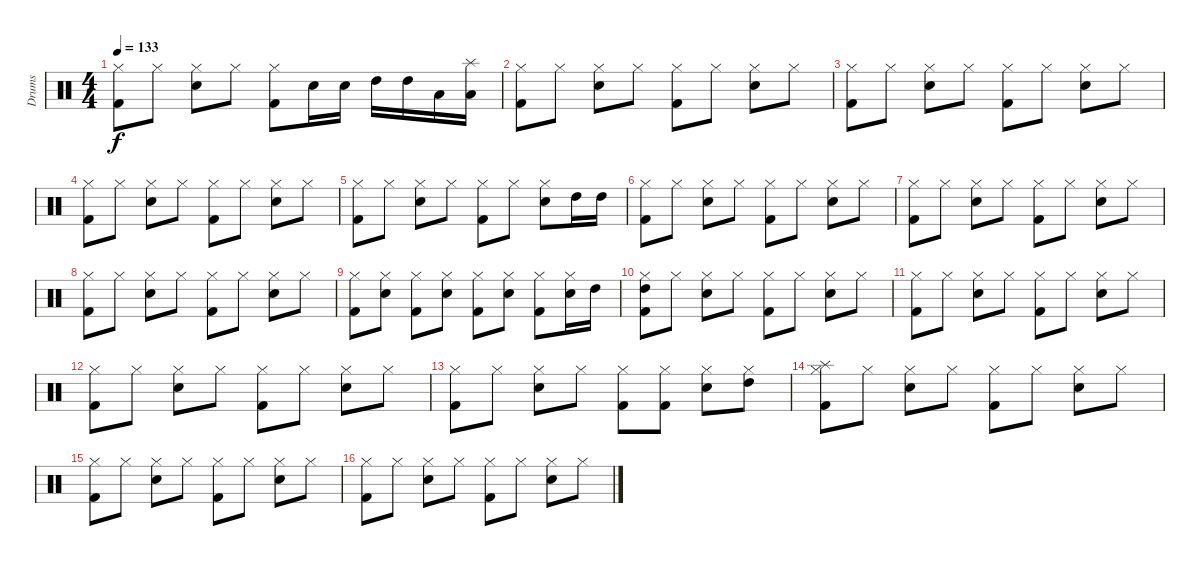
\track ("Drums" "Drums") {instrument percussion}
\staff {score}
\articulation defaults
\ts (4 4)
\tempo 133
\clef neutral
\ks c
("Kick (hit) 2" "Hi-Hat (closed)").8{dy f} "Hi-Hat (closed)".8 ("Snare (hit) 2" "Hi-Hat (closed)").8 "Hi-Hat (closed)".8 ("Kick (hit) 2" "Hi-Hat (closed)").8 "Snare (hit) 2".16 "Snare (hit) 2".16 "High Tom (hit)".16 "High Tom (hit)".16 "Low Tom (hit)".16 ("Low Floor Tom (hit)" "Splash (hit)").16 |
("Kick (hit) 2" "Hi-Hat (closed)").8 "Hi-Hat (closed)".8 ("Snare (hit) 2" "Hi-Hat (closed)").8 "Hi-Hat (closed)".8 ("Kick (hit) 2" "Hi-Hat (closed)").8 "Hi-Hat (closed)".8 ("Snare (hit) 2" "Hi-Hat (closed)").8 "Hi-Hat (closed)".8 |
("Kick (hit) 2" "Hi-Hat (closed)").8 "Hi-Hat (closed)".8 ("Snare (hit) 2" "Hi-Hat (closed)").8 "Hi-Hat (closed)".8 ("Kick (hit) 2" "Hi-Hat (closed)").8 "Hi-Hat (closed)".8 ("Snare (hit) 2" "Hi-Hat (closed)").8 "Hi-Hat (closed)".8 |
("Kick (hit) 2" "Hi-Hat (closed)").8 "Hi-Hat (closed)".8 ("Snare (hit) 2" "Hi-Hat (closed)").8 "Hi-Hat (closed)".8 ("Kick (hit) 2" "Hi-Hat (closed)").8 "Hi-Hat (closed)".8 ("Snare (hit) 2" "Hi-Hat (closed)").8 "Hi-Hat (closed)".8 |
("Kick (hit) 2" "Hi-Hat (closed)").8 "Hi-Hat (closed)".8 ("Snare (hit) 2" "Hi-Hat (closed)").8 "Hi-Hat (closed)".8 ("Kick (hit) 2" "Hi-Hat (closed)").8 "Hi-Hat (closed)".8 ("Snare (hit) 2" "Hi-Hat (closed)").8 "High Tom (hit)".16 "High Tom (hit)".16 |
("Kick (hit) 2" "Hi-Hat (closed)").8 "Hi-Hat (closed)".8 ("Snare (hit) 2" "Hi-Hat (closed)").8 "Hi-Hat (closed)".8 ("Kick (hit) 2" "Hi-Hat (closed)").8 "Hi-Hat (closed)".8 ("Snare (hit) 2" "Hi-Hat (closed)").8 "Hi-Hat (closed)".8 |
("Kick (hit) 2" "Hi-Hat (closed)").8 "Hi-Hat (closed)".8 ("Snare (hit) 2" "Hi-Hat (closed)").8 "Hi-Hat (closed)".8 ("Kick (hit) 2" "Hi-Hat (closed)").8 "Hi-Hat (closed)".8 ("Snare (hit) 2" "Hi-Hat (closed)").8 "Hi-Hat (closed)".8 |
("Kick (hit) 2" "Hi-Hat (closed)").8 "Hi-Hat (closed)".8 ("Snare (hit) 2" "Hi-Hat (closed)").8 "Hi-Hat (closed)".8 ("Kick (hit) 2" "Hi-Hat (closed)").8 "Hi-Hat (closed)".8 ("Snare (hit) 2" "Hi-Hat (closed)").8 "Hi-Hat (closed)".8 |
("Kick (hit) 2" "Hi-Hat (closed)").8 ("Snare (hit) 2" "Hi-Hat (closed)").8 ("Kick (hit) 2" "Hi-Hat (closed)").8 ("Snare (hit) 2" "Hi-Hat (closed)").8 ("Kick (hit) 2" "Hi-Hat (closed)").8 ("Snare (hit) 2" "Hi-Hat (closed)").8 ("Kick (hit) 2" "Hi-Hat (closed)").8 ("Snare (hit) 2" "Hi-Hat (closed)").16 "High Tom (hit)".16 |
("Kick (hit) 2" "Hi-Hat (closed)" "High Tom (hit)").8 "Hi-Hat (closed)".8 ("Snare (hit) 2" "Hi-Hat (closed)").8 "Hi-Hat (closed)".8 ("Kick (hit) 2" "Hi-Hat (closed)").8 "Hi-Hat (closed)".8 ("Snare (hit) 2" "Hi-Hat (closed)").8 "Hi-Hat (closed)".8 |
("Kick (hit) 2" "Hi-Hat (closed)").8 "Hi-Hat (closed)".8 ("Snare (hit) 2" "Hi-Hat (closed)").8 "Hi-Hat (closed)".8 ("Kick (hit) 2" "Hi-Hat (closed)").8 "Hi-Hat (closed)".8 ("Snare (hit) 2" "Hi-Hat (closed)").8 "Hi-Hat (closed)".8 |
("Kick (hit) 2" "Hi-Hat (closed)").8 "Hi-Hat (closed)".8 ("Snare (hit) 2" "Hi-Hat (closed)").8 "Hi-Hat (closed)".8 ("Kick (hit) 2" "Hi-Hat (closed)").8 "Hi-Hat (closed)".8 ("Snare (hit) 2" "Hi-Hat (closed)").8 "Hi-Hat (closed)".8 |
("Kick (hit) 2" "Hi-Hat (closed)").8 "Hi-Hat (closed)".8 ("Snare (hit) 2" "Hi-Hat (closed)").8 "Hi-Hat (closed)".8 ("Kick (hit) 2" "Hi-Hat (closed)").8 ("Kick (hit) 2" "Hi-Hat (closed)").8 ("Snare (hit) 2" "Hi-Hat (closed)").8 ("High Tom (hit)" "Hi-Hat (closed)").8 |
("Kick (hit) 2" "Hi-Hat (closed)" "Splash (hit)").8 "Hi-Hat (closed)".8 ("Snare (hit) 2" "Hi-Hat (closed)").8 "Hi-Hat (closed)".8 ("Kick (hit) 2" "Hi-Hat (closed)").8 "Hi-Hat (closed)".8 ("Snare (hit) 2" "Hi-Hat (closed)").8 "Hi-Hat (closed)".8 |
("Kick (hit) 2" "Hi-Hat (closed)").8 "Hi-Hat (closed)".8 ("Snare (hit) 2" "Hi-Hat (closed)").8 "Hi-Hat (closed)".8 ("Kick (hit) 2" "Hi-Hat (closed)").8 "Hi-Hat (closed)".8 ("Snare (hit) 2" "Hi-Hat (closed)").8 "Hi-Hat (closed)".8 |
("Kick (hit) 2" "Hi-Hat (closed)").8 "Hi-Hat (closed)".8 ("Snare (hit) 2" "Hi-Hat (closed)").8 "Hi-Hat (closed)".8 ("Kick (hit) 2" "Hi-Hat (closed)").8 "Hi-Hat (closed)".8 ("Snare (hit) 2" "Hi-Hat (closed)").8 "Hi-Hat (closed)".8
